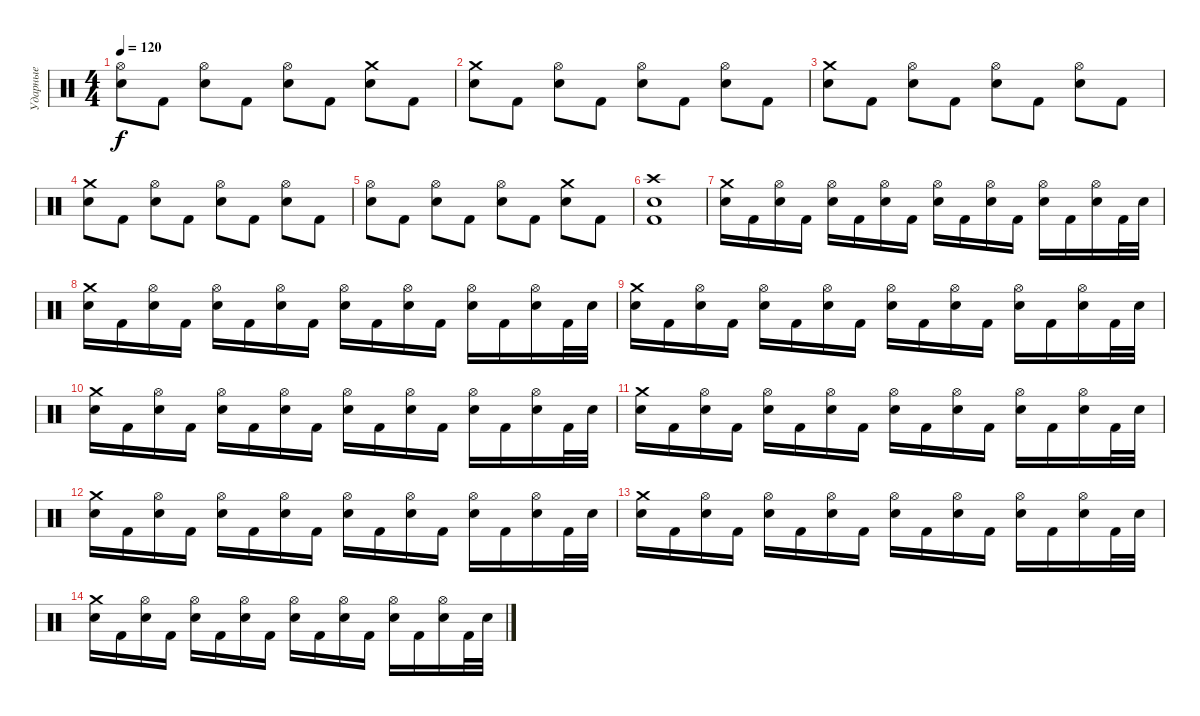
\track ("Ударные" "Ударные") {instrument percussion}
\staff {score}
\articulation defaults
\ts (4 4)
\tempo 120
\clef neutral
\ks c
("Hi-Hat (open)" "Electric Snare (hit)").8{dy f} "Kick (hit) 2".8 ("Hi-Hat (open)" "Electric Snare (hit)").8 "Kick (hit) 2".8 ("Hi-Hat (open)" "Electric Snare (hit)").8 "Kick (hit) 2".8 ("Crash medium (hit)" "Electric Snare (hit)").8 "Kick (hit) 2".8 |
("Crash medium (hit)" "Electric Snare (hit)").8 "Kick (hit) 2".8 ("Hi-Hat (open)" "Electric Snare (hit)").8 "Kick (hit) 2".8 ("Hi-Hat (open)" "Electric Snare (hit)").8 "Kick (hit) 2".8 ("Hi-Hat (open)" "Electric Snare (hit)").8 "Kick (hit) 2".8 |
("Crash medium (hit)" "Electric Snare (hit)").8 "Kick (hit) 2".8 ("Hi-Hat (open)" "Electric Snare (hit)").8 "Kick (hit) 2".8 ("Hi-Hat (open)" "Electric Snare (hit)").8 "Kick (hit) 2".8 ("Hi-Hat (open)" "Electric Snare (hit)").8 "Kick (hit) 2".8 |
("Crash medium (hit)" "Electric Snare (hit)").8 "Kick (hit) 2".8 ("Hi-Hat (open)" "Electric Snare (hit)").8 "Kick (hit) 2".8 ("Hi-Hat (open)" "Electric Snare (hit)").8 "Kick (hit) 2".8 ("Hi-Hat (open)" "Electric Snare (hit)").8 "Kick (hit) 2".8 |
("Hi-Hat (open)" "Electric Snare (hit)").8 "Kick (hit) 2".8 ("Hi-Hat (open)" "Electric Snare (hit)").8 "Kick (hit) 2".8 ("Hi-Hat (open)" "Electric Snare (hit)").8 "Kick (hit) 2".8 ("Crash medium (hit)" "Electric Snare (hit)").8 "Kick (hit) 2".8 |
("Snare (hit) 2" "Kick (hit) 2" "Crash high (hit)").1 |
("Crash medium (hit)" "Electric Snare (hit)").16 "Kick (hit) 2".16 ("Hi-Hat (open)" "Electric Snare (hit)").16 "Kick (hit) 2".16 ("Hi-Hat (open)" "Electric Snare (hit)").16 "Kick (hit) 2".16 ("Hi-Hat (open)" "Electric Snare (hit)").16 "Kick (hit) 2".16 ("Hi-Hat (open)" "Electric Snare (hit)").16 "Kick (hit) 2".16 ("Hi-Hat (open)" "Electric Snare (hit)").16 "Kick (hit) 2".16 ("Hi-Hat (open)" "Electric Snare (hit)").16 "Kick (hit) 2".16 ("Hi-Hat (open)" "Electric Snare (hit)").16 "Kick (hit) 2".32 "Electric Snare (hit)".32 |
("Crash medium (hit)" "Electric Snare (hit)").16 "Kick (hit) 2".16 ("Hi-Hat (open)" "Electric Snare (hit)").16 "Kick (hit) 2".16 ("Hi-Hat (open)" "Electric Snare (hit)").16 "Kick (hit) 2".16 ("Hi-Hat (open)" "Electric Snare (hit)").16 "Kick (hit) 2".16 ("Hi-Hat (open)" "Electric Snare (hit)").16 "Kick (hit) 2".16 ("Hi-Hat (open)" "Electric Snare (hit)").16 "Kick (hit) 2".16 ("Hi-Hat (open)" "Electric Snare (hit)").16 "Kick (hit) 2".16 ("Hi-Hat (open)" "Electric Snare (hit)").16 "Kick (hit) 2".32 "Electric Snare (hit)".32 |
("Crash medium (hit)" "Electric Snare (hit)").16 "Kick (hit) 2".16 ("Hi-Hat (open)" "Electric Snare (hit)").16 "Kick (hit) 2".16 ("Hi-Hat (open)" "Electric Snare (hit)").16 "Kick (hit) 2".16 ("Hi-Hat (open)" "Electric Snare (hit)").16 "Kick (hit) 2".16 ("Hi-Hat (open)" "Electric Snare (hit)").16 "Kick (hit) 2".16 ("Hi-Hat (open)" "Electric Snare (hit)").16 "Kick (hit) 2".16 ("Hi-Hat (open)" "Electric Snare (hit)").16 "Kick (hit) 2".16 ("Hi-Hat (open)" "Electric Snare (hit)").16 "Kick (hit) 2".32 "Electric Snare (hit)".32 |
("Crash medium (hit)" "Electric Snare (hit)").16 "Kick (hit) 2".16 ("Hi-Hat (open)" "Electric Snare (hit)").16 "Kick (hit) 2".16 ("Hi-Hat (open)" "Electric Snare (hit)").16 "Kick (hit) 2".16 ("Hi-Hat (open)" "Electric Snare (hit)").16 "Kick (hit) 2".16 ("Hi-Hat (open)" "Electric Snare (hit)").16 "Kick (hit) 2".16 ("Hi-Hat (open)" "Electric Snare (hit)").16 "Kick (hit) 2".16 ("Hi-Hat (open)" "Electric Snare (hit)").16 "Kick (hit) 2".16 ("Hi-Hat (open)" "Electric Snare (hit)").16 "Kick (hit) 2".32 "Electric Snare (hit)".32 |
("Crash medium (hit)" "Electric Snare (hit)").16 "Kick (hit) 2".16 ("Hi-Hat (open)" "Electric Snare (hit)").16 "Kick (hit) 2".16 ("Hi-Hat (open)" "Electric Snare (hit)").16 "Kick (hit) 2".16 ("Hi-Hat (open)" "Electric Snare (hit)").16 "Kick (hit) 2".16 ("Hi-Hat (open)" "Electric Snare (hit)").16 "Kick (hit) 2".16 ("Hi-Hat (open)" "Electric Snare (hit)").16 "Kick (hit) 2".16 ("Hi-Hat (open)" "Electric Snare (hit)").16 "Kick (hit) 2".16 ("Hi-Hat (open)" "Electric Snare (hit)").16 "Kick (hit) 2".32 "Electric Snare (hit)".32 |
("Crash medium (hit)" "Electric Snare (hit)").16 "Kick (hit) 2".16 ("Hi-Hat (open)" "Electric Snare (hit)").16 "Kick (hit) 2".16 ("Hi-Hat (open)" "Electric Snare (hit)").16 "Kick (hit) 2".16 ("Hi-Hat (open)" "Electric Snare (hit)").16 "Kick (hit) 2".16 ("Hi-Hat (open)" "Electric Snare (hit)").16 "Kick (hit) 2".16 ("Hi-Hat (open)" "Electric Snare (hit)").16 "Kick (hit) 2".16 ("Hi-Hat (open)" "Electric Snare (hit)").16 "Kick (hit) 2".16 ("Hi-Hat (open)" "Electric Snare (hit)").16 "Kick (hit) 2".32 "Electric Snare (hit)".32 |
("Crash medium (hit)" "Electric Snare (hit)").16 "Kick (hit) 2".16 ("Hi-Hat (open)" "Electric Snare (hit)").16 "Kick (hit) 2".16 ("Hi-Hat (open)" "Electric Snare (hit)").16 "Kick (hit) 2".16 ("Hi-Hat (open)" "Electric Snare (hit)").16 "Kick (hit) 2".16 ("Hi-Hat (open)" "Electric Snare (hit)").16 "Kick (hit) 2".16 ("Hi-Hat (open)" "Electric Snare (hit)").16 "Kick (hit) 2".16 ("Hi-Hat (open)" "Electric Snare (hit)").16 "Kick (hit) 2".16 ("Hi-Hat (open)" "Electric Snare (hit)").16 "Kick (hit) 2".32 "Electric Snare (hit)".32 |
("Crash medium (hit)" "Electric Snare (hit)").16 "Kick (hit) 2".16 ("Hi-Hat (open)" "Electric Snare (hit)").16 "Kick (hit) 2".16 ("Hi-Hat (open)" "Electric Snare (hit)").16 "Kick (hit) 2".16 ("Hi-Hat (open)" "Electric Snare (hit)").16 "Kick (hit) 2".16 ("Hi-Hat (open)" "Electric Snare (hit)").16 "Kick (hit) 2".16 ("Hi-Hat (open)" "Electric Snare (hit)").16 "Kick (hit) 2".16 ("Hi-Hat (open)" "Electric Snare (hit)").16 "Kick (hit) 2".16 ("Hi-Hat (open)" "Electric Snare (hit)").16 "Kick (hit) 2".32 "Electric Snare (hit)".32
